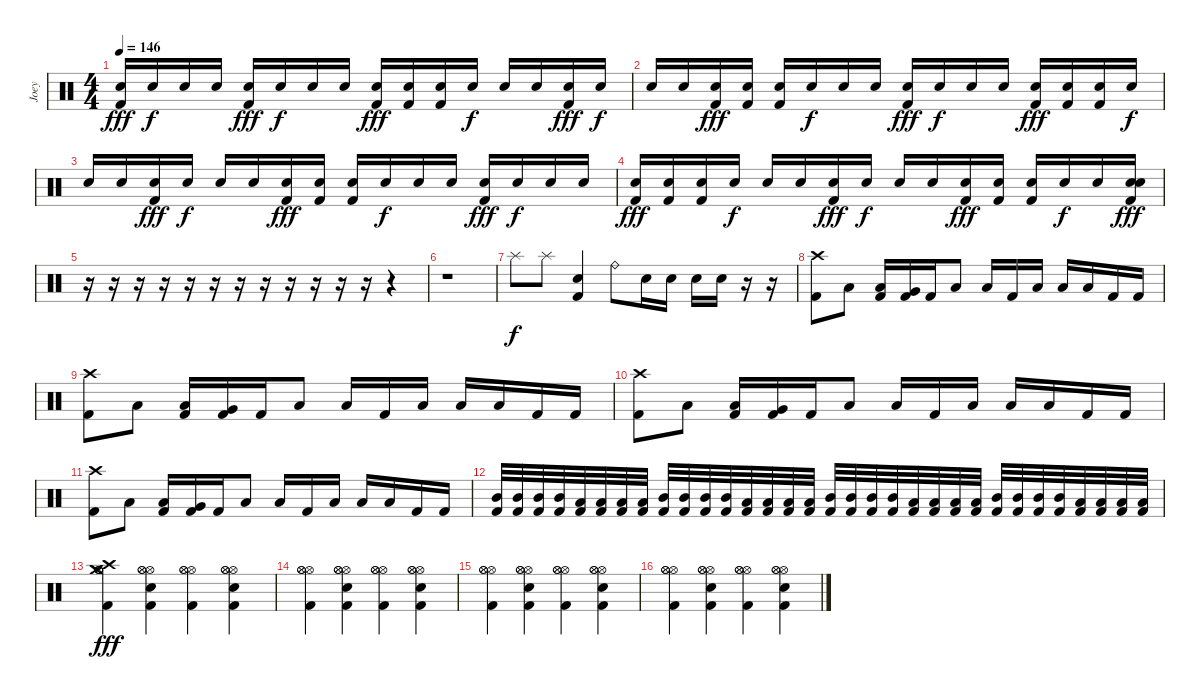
\track ("Joey" "Joey") {instrument percussion}
\staff {score}
\articulation defaults
\ts (4 4)
\tempo 146
\clef neutral
\ks c
("Snare (hit)" "Kick (hit) 2").16{dy fff} "Snare (hit)".16{dy f} "Snare (hit)".16 "Snare (hit)".16 ("Snare (hit)" "Kick (hit) 2").16{dy fff} "Snare (hit)".16{dy f} "Snare (hit)".16 "Snare (hit)".16 ("Snare (hit)" "Kick (hit) 2").16{dy fff} ("Snare (hit)" "Kick (hit) 2").16 ("Snare (hit)" "Kick (hit) 2").16 "Snare (hit)".16{dy f} "Snare (hit)".16 "Snare (hit)".16 ("Snare (hit)" "Kick (hit) 2").16{dy fff} "Snare (hit)".16{dy f} |
"Snare (hit)".16 "Snare (hit)".16 ("Snare (hit)" "Kick (hit) 2").16{dy fff} ("Snare (hit)" "Kick (hit) 2").16 ("Snare (hit)" "Kick (hit) 2").16 "Snare (hit)".16{dy f} "Snare (hit)".16 "Snare (hit)".16 ("Snare (hit)" "Kick (hit) 2").16{dy fff} "Snare (hit)".16{dy f} "Snare (hit)".16 "Snare (hit)".16 ("Snare (hit)" "Kick (hit) 2").16{dy fff} ("Snare (hit)" "Kick (hit) 2").16 ("Snare (hit)" "Kick (hit) 2").16 "Snare (hit)".16{dy f} |
"Snare (hit)".16 "Snare (hit)".16 ("Snare (hit)" "Kick (hit) 2").16{dy fff} "Snare (hit)".16{dy f} "Snare (hit)".16 "Snare (hit)".16 ("Snare (hit)" "Kick (hit) 2").16{dy fff} ("Snare (hit)" "Kick (hit) 2").16 ("Snare (hit)" "Kick (hit) 2").16 "Snare (hit)".16{dy f} "Snare (hit)".16 "Snare (hit)".16 ("Snare (hit)" "Kick (hit) 2").16{dy fff} "Snare (hit)".16{dy f} "Snare (hit)".16 "Snare (hit)".16 |
("Snare (hit)" "Kick (hit) 2").16{dy fff} ("Snare (hit)" "Kick (hit) 2").16 ("Snare (hit)" "Kick (hit) 2").16 "Snare (hit)".16{dy f} "Snare (hit)".16 "Snare (hit)".16 ("Snare (hit)" "Kick (hit) 2").16{dy fff} "Snare (hit)".16{dy f} "Snare (hit)".16 "Snare (hit)".16 ("Snare (hit)" "Kick (hit) 2").16{dy fff} ("Snare (hit)" "Kick (hit) 2").16 ("Snare (hit)" "Kick (hit) 2").16 "Snare (hit)".16{dy f} "Snare (hit)".16 ("Snare (hit)" "Kick (hit) 2" "Electric Snare (hit)").16{dy fff} |
r.16 r.16 r.16 r.16 r.16 r.16 r.16 r.16 r.16 r.16 r.16 r.16 r.4 |
r.1 |
"Splash (hit)".8{dy f} "Splash (hit)".8 ("Electric Snare (hit)" "Kick (hit) 2").4 "Ride (bell)".8 "Electric Snare (hit)".16 "Electric Snare (hit)".16 "Electric Snare (hit)".16 "Electric Snare (hit)".16 r.16 r.16 |
("Crash high (hit)" "Kick (hit) 2").8 "Low Tom (hit)".8 ("Low Tom (hit)" "Kick (hit) 2").16 ("Very Low Tom (hit)" "Kick (hit) 2").16 "Kick (hit) 2".16 "Low Tom (hit)".8 "Low Tom (hit)".16 "Kick (hit) 2".16 "Low Floor Tom (hit)".16 "Low Floor Tom (hit)".16 "Low Floor Tom (hit)".16 "Kick (hit) 2".16 "Kick (hit) 2".16 |
("Crash high (hit)" "Kick (hit) 2").8 "Low Tom (hit)".8 ("Low Tom (hit)" "Kick (hit) 2").16 ("Very Low Tom (hit)" "Kick (hit) 2").16 "Kick (hit) 2".16 "Low Tom (hit)".8 "Low Tom (hit)".16 "Kick (hit) 2".16 "Low Floor Tom (hit)".16 "Low Floor Tom (hit)".16 "Low Floor Tom (hit)".16 "Kick (hit) 2".16 "Kick (hit) 2".16 |
("Crash high (hit)" "Kick (hit) 2").8 "Low Tom (hit)".8 ("Low Tom (hit)" "Kick (hit) 2").16 ("Very Low Tom (hit)" "Kick (hit) 2").16 "Kick (hit) 2".16 "Low Tom (hit)".8 "Low Tom (hit)".16 "Kick (hit) 2".16 "Low Floor Tom (hit)".16 "Low Floor Tom (hit)".16 "Low Floor Tom (hit)".16 "Kick (hit) 2".16 "Kick (hit) 2".16 |
("Crash high (hit)" "Kick (hit) 2").8 "Low Tom (hit)".8 ("Low Tom (hit)" "Kick (hit) 2").16 ("Very Low Tom (hit)" "Kick (hit) 2").16 "Kick (hit) 2".16 "Low Tom (hit)".8 "Low Tom (hit)".16 "Kick (hit) 2".16 "Low Floor Tom (hit)".16 "Low Floor Tom (hit)".16 "Low Floor Tom (hit)".16 "Kick (hit) 2".16 "Kick (hit) 2".16 |
("Mid Tom (hit)" "Kick (hit) 2").32 ("Mid Tom (hit)" "Kick (hit) 2").32 ("Mid Tom (hit)" "Kick (hit) 2").32 ("Mid Tom (hit)" "Kick (hit) 2").32 ("Low Tom (hit)" "Kick (hit) 2").32 ("Low Tom (hit)" "Kick (hit) 2").32 ("Low Tom (hit)" "Kick (hit) 2").32 ("Low Tom (hit)" "Kick (hit) 2").32 ("Mid Tom (hit)" "Kick (hit) 2").32 ("Mid Tom (hit)" "Kick (hit) 2").32 ("Mid Tom (hit)" "Kick (hit) 2").32 ("Mid Tom (hit)" "Kick (hit) 2").32 ("Low Tom (hit)" "Kick (hit) 2").32 ("Low Tom (hit)" "Kick (hit) 2").32 ("Low Tom (hit)" "Kick (hit) 2").32 ("Low Tom (hit)" "Kick (hit) 2").32 ("Mid Tom (hit)" "Kick (hit) 2").32 ("Mid Tom (hit)" "Kick (hit) 2").32 ("Mid Tom (hit)" "Kick (hit) 2").32 ("Mid Tom (hit)" "Kick (hit) 2").32 ("Low Tom (hit)" "Kick (hit) 2").32 ("Low Tom (hit)" "Kick (hit) 2").32 ("Low Tom (hit)" "Kick (hit) 2").32 ("Low Tom (hit)" "Kick (hit) 2").32 ("Mid Tom (hit)" "Kick (hit) 2").32 ("Mid Tom (hit)" "Kick (hit) 2").32 ("Mid Tom (hit)" "Kick (hit) 2").32 ("Mid Tom (hit)" "Kick (hit) 2").32 ("Low Tom (hit)" "Kick (hit) 2").32 ("Low Tom (hit)" "Kick (hit) 2").32 ("Low Tom (hit)" "Kick (hit) 2").32 ("Low Tom (hit)" "Kick (hit) 2").32 |
("Hi-Hat (open)" "Hi-Hat (open)" "Hi-Hat (open)" "Crash high (hit)" "Crash medium (hit)" "Kick (hit) 2").4{dy fff} ("Hi-Hat (open)" "Hi-Hat (open)" "Hi-Hat (open)" "Electric Snare (hit)" "Kick (hit) 2").4 ("Hi-Hat (open)" "Hi-Hat (open)" "Hi-Hat (open)" "Kick (hit) 2").4 ("Hi-Hat (open)" "Hi-Hat (open)" "Hi-Hat (open)" "Electric Snare (hit)" "Kick (hit) 2").4 |
("Hi-Hat (open)" "Hi-Hat (open)" "Hi-Hat (open)" "Kick (hit) 2").4 ("Hi-Hat (open)" "Hi-Hat (open)" "Hi-Hat (open)" "Electric Snare (hit)" "Kick (hit) 2").4 ("Hi-Hat (open)" "Hi-Hat (open)" "Hi-Hat (open)" "Kick (hit) 2").4 ("Hi-Hat (open)" "Hi-Hat (open)" "Hi-Hat (open)" "Electric Snare (hit)" "Kick (hit) 2").4 |
("Hi-Hat (open)" "Hi-Hat (open)" "Hi-Hat (open)" "Kick (hit) 2").4 ("Hi-Hat (open)" "Hi-Hat (open)" "Hi-Hat (open)" "Electric Snare (hit)" "Kick (hit) 2").4 ("Hi-Hat (open)" "Hi-Hat (open)" "Hi-Hat (open)" "Kick (hit) 2").4 ("Hi-Hat (open)" "Hi-Hat (open)" "Hi-Hat (open)" "Electric Snare (hit)" "Kick (hit) 2").4 |
("Hi-Hat (open)" "Hi-Hat (open)" "Hi-Hat (open)" "Kick (hit) 2").4 ("Hi-Hat (open)" "Hi-Hat (open)" "Hi-Hat (open)" "Electric Snare (hit)" "Kick (hit) 2").4 ("Hi-Hat (open)" "Hi-Hat (open)" "Hi-Hat (open)" "Kick (hit) 2").4 ("Hi-Hat (open)" "Hi-Hat (open)" "Hi-Hat (open)" "Electric Snare (hit)" "Kick (hit) 2").4
